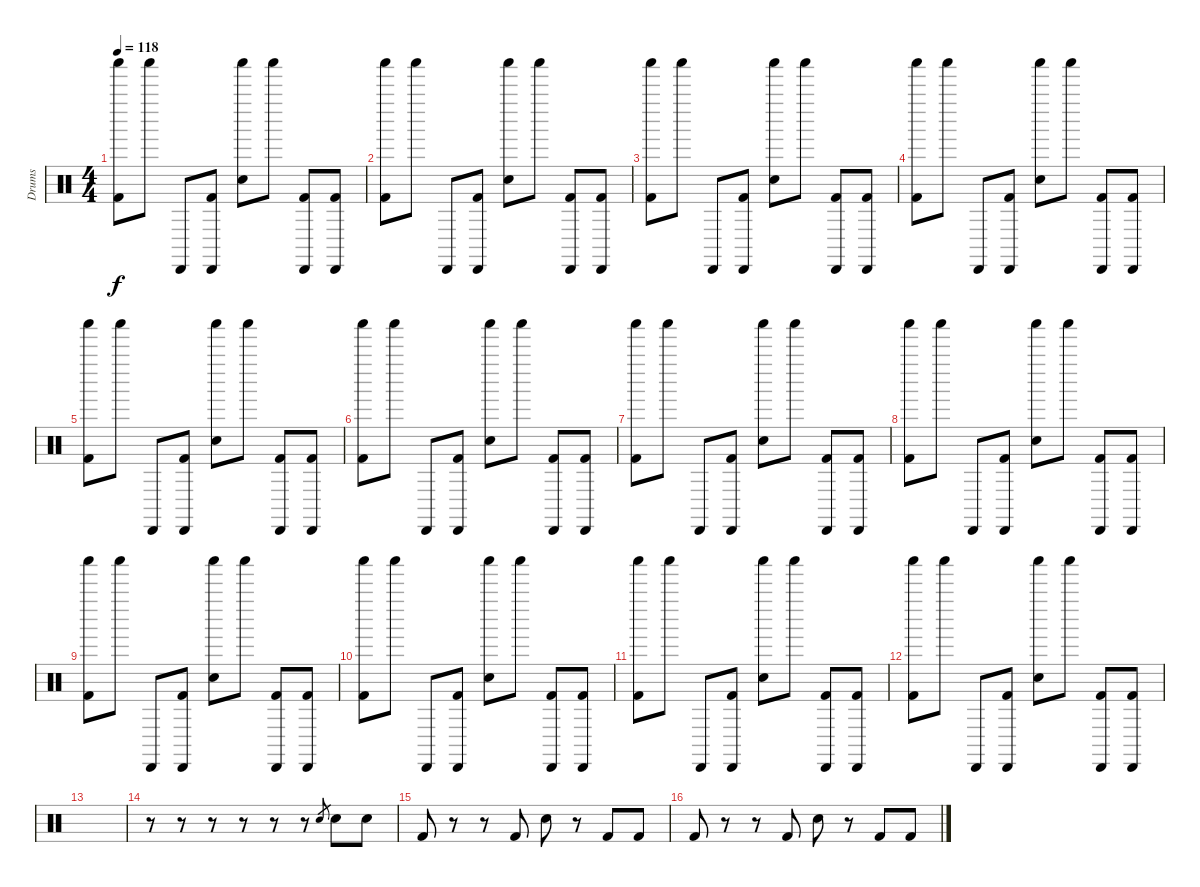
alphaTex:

\track ("Drums" "Drums") {instrument percussion}
\staff {score}
\articulation defaults
\ts (4 4)
\tempo 118
\clef neutral
\ks c
("Shaker (hit)" "Kick (hit) 2").8{dy f} "Shaker (hit)".8 "Cabasa (hit)".8 ("Cabasa (hit)" "Kick (hit) 2").8 ("Shaker (hit)" "Electric Snare (hit)").8 "Shaker (hit)".8 ("Cabasa (hit)" "Kick (hit) 2").8 ("Cabasa (hit)" "Kick (hit) 2").8 |
("Shaker (hit)" "Kick (hit) 2").8 "Shaker (hit)".8 "Cabasa (hit)".8 ("Cabasa (hit)" "Kick (hit) 2").8 ("Shaker (hit)" "Electric Snare (hit)").8 "Shaker (hit)".8 ("Cabasa (hit)" "Kick (hit) 2").8 ("Cabasa (hit)" "Kick (hit) 2").8 |
("Shaker (hit)" "Kick (hit) 2").8 "Shaker (hit)".8 "Cabasa (hit)".8 ("Cabasa (hit)" "Kick (hit) 2").8 ("Shaker (hit)" "Electric Snare (hit)").8 "Shaker (hit)".8 ("Cabasa (hit)" "Kick (hit) 2").8 ("Cabasa (hit)" "Kick (hit) 2").8 |
("Shaker (hit)" "Kick (hit) 2").8 "Shaker (hit)".8 "Cabasa (hit)".8 ("Cabasa (hit)" "Kick (hit) 2").8 ("Shaker (hit)" "Electric Snare (hit)").8 "Shaker (hit)".8 ("Cabasa (hit)" "Kick (hit) 2").8 ("Cabasa (hit)" "Kick (hit) 2").8 |
("Shaker (hit)" "Kick (hit) 2").8 "Shaker (hit)".8 "Cabasa (hit)".8 ("Cabasa (hit)" "Kick (hit) 2").8 ("Shaker (hit)" "Electric Snare (hit)").8 "Shaker (hit)".8 ("Cabasa (hit)" "Kick (hit) 2").8 ("Cabasa (hit)" "Kick (hit) 2").8 |
("Shaker (hit)" "Kick (hit) 2").8 "Shaker (hit)".8 "Cabasa (hit)".8 ("Cabasa (hit)" "Kick (hit) 2").8 ("Shaker (hit)" "Electric Snare (hit)").8 "Shaker (hit)".8 ("Cabasa (hit)" "Kick (hit) 2").8 ("Cabasa (hit)" "Kick (hit) 2").8 |
("Shaker (hit)" "Kick (hit) 2").8 "Shaker (hit)".8 "Cabasa (hit)".8 ("Cabasa (hit)" "Kick (hit) 2").8 ("Shaker (hit)" "Electric Snare (hit)").8 "Shaker (hit)".8 ("Cabasa (hit)" "Kick (hit) 2").8 ("Cabasa (hit)" "Kick (hit) 2").8 |
("Shaker (hit)" "Kick (hit) 2").8 "Shaker (hit)".8 "Cabasa (hit)".8 ("Cabasa (hit)" "Kick (hit) 2").8 ("Shaker (hit)" "Electric Snare (hit)").8 "Shaker (hit)".8 ("Cabasa (hit)" "Kick (hit) 2").8 ("Cabasa (hit)" "Kick (hit) 2").8 |
("Shaker (hit)" "Kick (hit) 2").8 "Shaker (hit)".8 "Cabasa (hit)".8 ("Cabasa (hit)" "Kick (hit) 2").8 ("Shaker (hit)" "Electric Snare (hit)").8 "Shaker (hit)".8 ("Cabasa (hit)" "Kick (hit) 2").8 ("Cabasa (hit)" "Kick (hit) 2").8 |
("Shaker (hit)" "Kick (hit) 2").8 "Shaker (hit)".8 "Cabasa (hit)".8 ("Cabasa (hit)" "Kick (hit) 2").8 ("Shaker (hit)" "Electric Snare (hit)").8 "Shaker (hit)".8 ("Cabasa (hit)" "Kick (hit) 2").8 ("Cabasa (hit)" "Kick (hit) 2").8 |
("Shaker (hit)" "Kick (hit) 2").8 "Shaker (hit)".8 "Cabasa (hit)".8 ("Cabasa (hit)" "Kick (hit) 2").8 ("Shaker (hit)" "Electric Snare (hit)").8 "Shaker (hit)".8 ("Cabasa (hit)" "Kick (hit) 2").8 ("Cabasa (hit)" "Kick (hit) 2").8 |
("Shaker (hit)" "Kick (hit) 2").8 "Shaker (hit)".8 "Cabasa (hit)".8 ("Cabasa (hit)" "Kick (hit) 2").8 ("Shaker (hit)" "Electric Snare (hit)").8 "Shaker (hit)".8 ("Cabasa (hit)" "Kick (hit) 2").8 ("Cabasa (hit)" "Kick (hit) 2").8 |
|
r.8 r.8 r.8 r.8 r.8 r.8 "Electric Snare (hit)".8{gr} "Electric Snare (hit)".8 "Electric Snare (hit)".8 |
"Kick (hit) 2".8 r.8 r.8 "Kick (hit) 2".8 "Electric Snare (hit)".8 r.8 "Kick (hit) 2".8 "Kick (hit) 2".8 |
"Kick (hit) 2".8 r.8 r.8 "Kick (hit) 2".8 "Electric Snare (hit)".8 r.8 "Kick (hit) 2".8 "Kick (hit) 2".8
